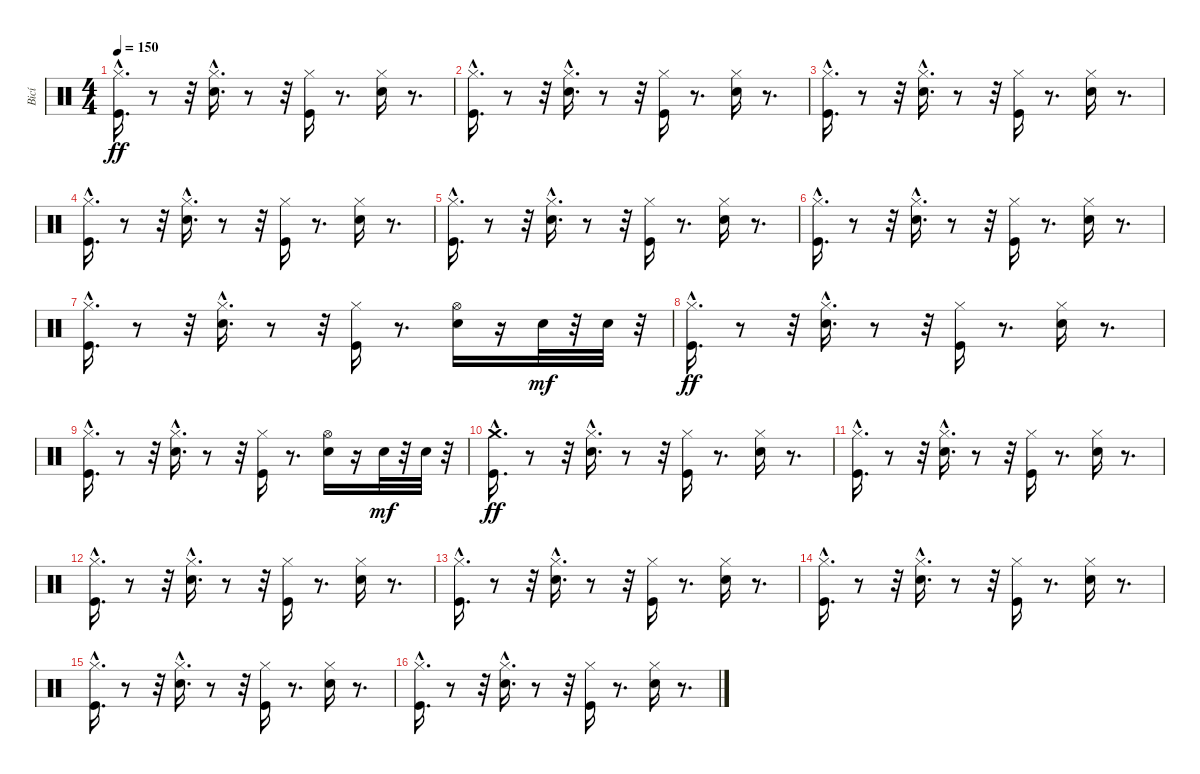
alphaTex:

\track ("Bicí" "Bicí") {instrument percussion}
\staff {score}
\articulation defaults
\ts (4 4)
\tempo 150
\clef neutral
\ks c
("Hi-Hat (closed)"{hac} "Kick (hit)").16{d dy ff} r.8 r.32 ("Hi-Hat (closed)"{hac} "Snare (hit) 2").16{d} r.8 r.32 ("Kick (hit)" "Hi-Hat (closed)").16 r.8{d} ("Snare (hit) 2" "Hi-Hat (closed)").16 r.8{d} |
("Hi-Hat (closed)"{hac} "Kick (hit)").16{d} r.8 r.32 ("Hi-Hat (closed)"{hac} "Snare (hit) 2").16{d} r.8 r.32 ("Kick (hit)" "Hi-Hat (closed)").16 r.8{d} ("Snare (hit) 2" "Hi-Hat (closed)").16 r.8{d} |
("Hi-Hat (closed)"{hac} "Kick (hit)").16{d} r.8 r.32 ("Hi-Hat (closed)"{hac} "Snare (hit) 2").16{d} r.8 r.32 ("Kick (hit)" "Hi-Hat (closed)").16 r.8{d} ("Snare (hit) 2" "Hi-Hat (closed)").16 r.8{d} |
("Hi-Hat (closed)"{hac} "Kick (hit)").16{d} r.8 r.32 ("Hi-Hat (closed)"{hac} "Snare (hit) 2").16{d} r.8 r.32 ("Kick (hit)" "Hi-Hat (closed)").16 r.8{d} ("Snare (hit) 2" "Hi-Hat (closed)").16 r.8{d} |
("Hi-Hat (closed)"{hac} "Kick (hit)").16{d} r.8 r.32 ("Hi-Hat (closed)"{hac} "Snare (hit) 2").16{d} r.8 r.32 ("Kick (hit)" "Hi-Hat (closed)").16 r.8{d} ("Snare (hit) 2" "Hi-Hat (closed)").16 r.8{d} |
("Hi-Hat (closed)"{hac} "Kick (hit)").16{d} r.8 r.32 ("Hi-Hat (closed)"{hac} "Snare (hit) 2").16{d} r.8 r.32 ("Kick (hit)" "Hi-Hat (closed)").16 r.8{d} ("Snare (hit) 2" "Hi-Hat (closed)").16 r.8{d} |
("Hi-Hat (closed)"{hac} "Kick (hit)").16{d} r.8 r.32 ("Hi-Hat (closed)"{hac} "Snare (hit) 2").16{d} r.8 r.32 ("Kick (hit)" "Hi-Hat (closed)").16 r.8{d} ("Snare (hit) 2" "Hi-Hat (open)").16 r.16 "Snare (hit) 2".32{dy mf} r.32 "Snare (hit) 2".32 r.32 |
("Hi-Hat (closed)"{hac} "Kick (hit)").16{d dy ff} r.8 r.32 ("Hi-Hat (closed)"{hac} "Snare (hit) 2").16{d} r.8 r.32 ("Kick (hit)" "Hi-Hat (closed)").16 r.8{d} ("Snare (hit) 2" "Hi-Hat (closed)").16 r.8{d} |
("Hi-Hat (closed)"{hac} "Kick (hit)").16{d} r.8 r.32 ("Hi-Hat (closed)"{hac} "Snare (hit) 2").16{d} r.8 r.32 ("Kick (hit)" "Hi-Hat (closed)").16 r.8{d} ("Snare (hit) 2" "Hi-Hat (open)").16 r.16 "Snare (hit) 2".32{dy mf} r.32 "Snare (hit) 2".32 r.32 |
("Crash medium (hit)"{hac} "Kick (hit)").16{d dy ff} r.8 r.32 ("Hi-Hat (closed)"{hac} "Snare (hit) 2").16{d} r.8 r.32 ("Kick (hit)" "Hi-Hat (closed)").16 r.8{d} ("Snare (hit) 2" "Hi-Hat (closed)").16 r.8{d} |
("Hi-Hat (closed)"{hac} "Kick (hit)").16{d} r.8 r.32 ("Hi-Hat (closed)"{hac} "Snare (hit) 2").16{d} r.8 r.32 ("Kick (hit)" "Hi-Hat (closed)").16 r.8{d} ("Snare (hit) 2" "Hi-Hat (closed)").16 r.8{d} |
("Hi-Hat (closed)"{hac} "Kick (hit)").16{d} r.8 r.32 ("Hi-Hat (closed)"{hac} "Snare (hit) 2").16{d} r.8 r.32 ("Kick (hit)" "Hi-Hat (closed)").16 r.8{d} ("Snare (hit) 2" "Hi-Hat (closed)").16 r.8{d} |
("Hi-Hat (closed)"{hac} "Kick (hit)").16{d} r.8 r.32 ("Hi-Hat (closed)"{hac} "Snare (hit) 2").16{d} r.8 r.32 ("Kick (hit)" "Hi-Hat (closed)").16 r.8{d} ("Snare (hit) 2" "Hi-Hat (closed)").16 r.8{d} |
("Hi-Hat (closed)"{hac} "Kick (hit)").16{d} r.8 r.32 ("Hi-Hat (closed)"{hac} "Snare (hit) 2").16{d} r.8 r.32 ("Kick (hit)" "Hi-Hat (closed)").16 r.8{d} ("Snare (hit) 2" "Hi-Hat (closed)").16 r.8{d} |
("Hi-Hat (closed)"{hac} "Kick (hit)").16{d} r.8 r.32 ("Hi-Hat (closed)"{hac} "Snare (hit) 2").16{d} r.8 r.32 ("Kick (hit)" "Hi-Hat (closed)").16 r.8{d} ("Snare (hit) 2" "Hi-Hat (closed)").16 r.8{d} |
("Hi-Hat (closed)"{hac} "Kick (hit)").16{d} r.8 r.32 ("Hi-Hat (closed)"{hac} "Snare (hit) 2").16{d} r.8 r.32 ("Kick (hit)" "Hi-Hat (closed)").16 r.8{d} ("Snare (hit) 2" "Hi-Hat (closed)").16 r.8{d}
